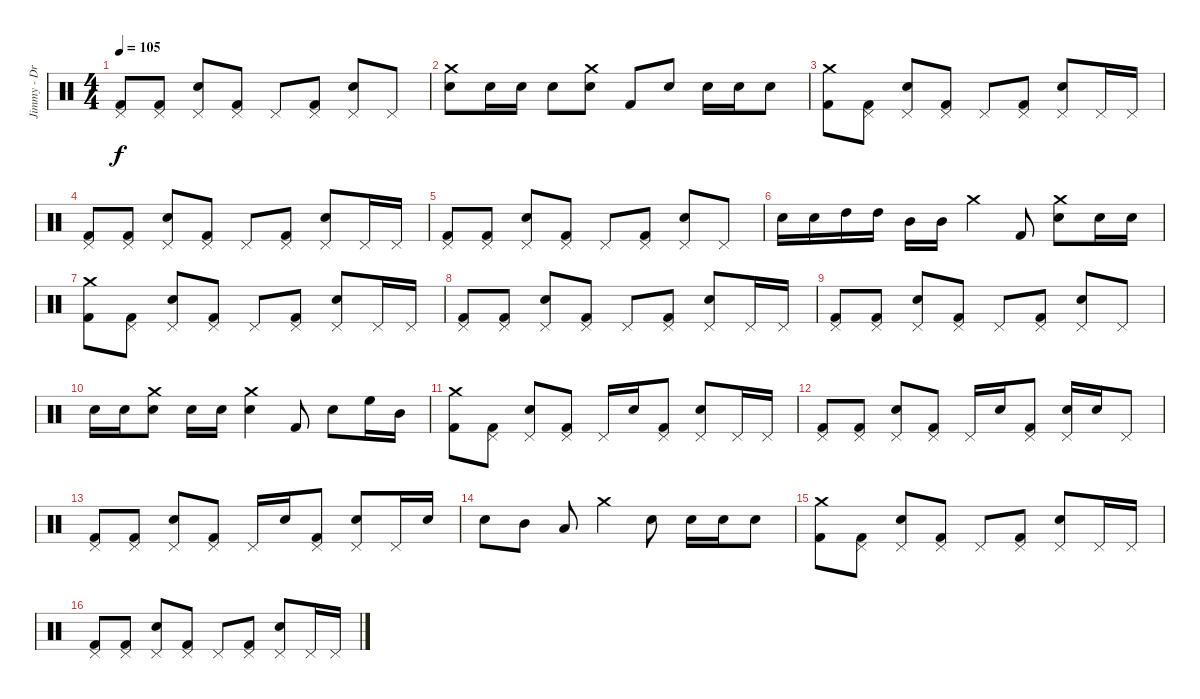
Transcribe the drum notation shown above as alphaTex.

\track ("Jimmy - Drums" "Jimmy - Dr") {instrument percussion}
\staff {score}
\articulation defaults
\ts (4 4)
\tempo 105
\clef neutral
\ks c
("Pedal Hi-Hat (hit)" "Kick (hit) 2").8{dy f} ("Pedal Hi-Hat (hit)" "Kick (hit) 2").8 ("Pedal Hi-Hat (hit)" "Electric Snare (hit)").8 ("Pedal Hi-Hat (hit)" "Kick (hit) 2").8 "Pedal Hi-Hat (hit)".8 ("Pedal Hi-Hat (hit)" "Kick (hit) 2").8 ("Pedal Hi-Hat (hit)" "Electric Snare (hit)").8 "Pedal Hi-Hat (hit)".8 |
("Crash medium (hit)" "Electric Snare (hit)").8 "Electric Snare (hit)".16 "Electric Snare (hit)".16 "Electric Snare (hit)".8 ("Crash medium (hit)" "Electric Snare (hit)").8 "Kick (hit) 2".8 "Electric Snare (hit)".8 "Electric Snare (hit)".16 "Electric Snare (hit)".16 "Electric Snare (hit)".8 |
("Crash medium (hit)" "Kick (hit) 2").8 ("Pedal Hi-Hat (hit)" "Kick (hit) 2").8 ("Pedal Hi-Hat (hit)" "Electric Snare (hit)").8 ("Pedal Hi-Hat (hit)" "Kick (hit) 2").8 "Pedal Hi-Hat (hit)".8 ("Pedal Hi-Hat (hit)" "Kick (hit) 2").8 ("Pedal Hi-Hat (hit)" "Electric Snare (hit)").8 "Pedal Hi-Hat (hit)".16 "Pedal Hi-Hat (hit)".16 |
("Pedal Hi-Hat (hit)" "Kick (hit) 2").8 ("Pedal Hi-Hat (hit)" "Kick (hit) 2").8 ("Pedal Hi-Hat (hit)" "Electric Snare (hit)").8 ("Pedal Hi-Hat (hit)" "Kick (hit) 2").8 "Pedal Hi-Hat (hit)".8 ("Pedal Hi-Hat (hit)" "Kick (hit) 2").8 ("Pedal Hi-Hat (hit)" "Electric Snare (hit)").8 "Pedal Hi-Hat (hit)".16 "Pedal Hi-Hat (hit)".16 |
("Pedal Hi-Hat (hit)" "Kick (hit) 2").8 ("Pedal Hi-Hat (hit)" "Kick (hit) 2").8 ("Pedal Hi-Hat (hit)" "Electric Snare (hit)").8 ("Pedal Hi-Hat (hit)" "Kick (hit) 2").8 "Pedal Hi-Hat (hit)".8 ("Pedal Hi-Hat (hit)" "Kick (hit) 2").8 ("Pedal Hi-Hat (hit)" "Electric Snare (hit)").8 "Pedal Hi-Hat (hit)".8 |
"Electric Snare (hit)".16 "Electric Snare (hit)".16 "High Tom (hit)".16 "High Tom (hit)".16 "Mid Tom (hit)".16 "Mid Tom (hit)".16 "Crash medium (hit)".4 "Kick (hit) 2".8 ("Crash medium (hit)" "Electric Snare (hit)").8 "Electric Snare (hit)".16 "Electric Snare (hit)".16 |
("Crash medium (hit)" "Kick (hit) 2").8 ("Pedal Hi-Hat (hit)" "Kick (hit) 2").8 ("Pedal Hi-Hat (hit)" "Electric Snare (hit)").8 ("Pedal Hi-Hat (hit)" "Kick (hit) 2").8 "Pedal Hi-Hat (hit)".8 ("Pedal Hi-Hat (hit)" "Kick (hit) 2").8 ("Pedal Hi-Hat (hit)" "Electric Snare (hit)").8 "Pedal Hi-Hat (hit)".16 "Pedal Hi-Hat (hit)".16 |
("Pedal Hi-Hat (hit)" "Kick (hit) 2").8 ("Pedal Hi-Hat (hit)" "Kick (hit) 2").8 ("Pedal Hi-Hat (hit)" "Electric Snare (hit)").8 ("Pedal Hi-Hat (hit)" "Kick (hit) 2").8 "Pedal Hi-Hat (hit)".8 ("Pedal Hi-Hat (hit)" "Kick (hit) 2").8 ("Pedal Hi-Hat (hit)" "Electric Snare (hit)").8 "Pedal Hi-Hat (hit)".16 "Pedal Hi-Hat (hit)".16 |
("Pedal Hi-Hat (hit)" "Kick (hit) 2").8 ("Pedal Hi-Hat (hit)" "Kick (hit) 2").8 ("Pedal Hi-Hat (hit)" "Electric Snare (hit)").8 ("Pedal Hi-Hat (hit)" "Kick (hit) 2").8 "Pedal Hi-Hat (hit)".8 ("Pedal Hi-Hat (hit)" "Kick (hit) 2").8 ("Pedal Hi-Hat (hit)" "Electric Snare (hit)").8 "Pedal Hi-Hat (hit)".8 |
"Electric Snare (hit)".16 "Electric Snare (hit)".16 ("Crash medium (hit)" "Electric Snare (hit)").8 "Electric Snare (hit)".16 "Electric Snare (hit)".16 ("Crash medium (hit)" "Electric Snare (hit)").4 "Kick (hit) 2".8 "Electric Snare (hit)".8 "High Floor Tom (hit)".16 "Mid Tom (hit)".16 |
("Crash medium (hit)" "Kick (hit) 2").8 ("Pedal Hi-Hat (hit)" "Kick (hit) 2").8 ("Pedal Hi-Hat (hit)" "Electric Snare (hit)").8 ("Pedal Hi-Hat (hit)" "Kick (hit) 2").8 "Pedal Hi-Hat (hit)".16 "Electric Snare (hit)".16 ("Pedal Hi-Hat (hit)" "Kick (hit) 2").8 ("Pedal Hi-Hat (hit)" "Electric Snare (hit)").8 "Pedal Hi-Hat (hit)".16 "Pedal Hi-Hat (hit)".16 |
("Pedal Hi-Hat (hit)" "Kick (hit) 2").8 ("Pedal Hi-Hat (hit)" "Kick (hit) 2").8 ("Pedal Hi-Hat (hit)" "Electric Snare (hit)").8 ("Pedal Hi-Hat (hit)" "Kick (hit) 2").8 "Pedal Hi-Hat (hit)".16 "Electric Snare (hit)".16 ("Pedal Hi-Hat (hit)" "Kick (hit) 2").8 ("Pedal Hi-Hat (hit)" "Electric Snare (hit)").16 "Electric Snare (hit)".16 "Pedal Hi-Hat (hit)".8 |
("Pedal Hi-Hat (hit)" "Kick (hit) 2").8 ("Pedal Hi-Hat (hit)" "Kick (hit) 2").8 ("Pedal Hi-Hat (hit)" "Electric Snare (hit)").8 ("Pedal Hi-Hat (hit)" "Kick (hit) 2").8 "Pedal Hi-Hat (hit)".16 "Electric Snare (hit)".16 ("Pedal Hi-Hat (hit)" "Kick (hit) 2").8 ("Pedal Hi-Hat (hit)" "Electric Snare (hit)").8 "Pedal Hi-Hat (hit)".16 "Electric Snare (hit)".16 |
"Electric Snare (hit)".8 "Mid Tom (hit)".8 "Low Tom (hit)".8 "Crash medium (hit)".4 "Electric Snare (hit)".8 "Electric Snare (hit)".16 "Electric Snare (hit)".16 "Electric Snare (hit)".8 |
("Crash medium (hit)" "Kick (hit) 2").8 ("Pedal Hi-Hat (hit)" "Kick (hit) 2").8 ("Pedal Hi-Hat (hit)" "Electric Snare (hit)").8 ("Pedal Hi-Hat (hit)" "Kick (hit) 2").8 "Pedal Hi-Hat (hit)".8 ("Pedal Hi-Hat (hit)" "Kick (hit) 2").8 ("Pedal Hi-Hat (hit)" "Electric Snare (hit)").8 "Pedal Hi-Hat (hit)".16 "Pedal Hi-Hat (hit)".16 |
("Pedal Hi-Hat (hit)" "Kick (hit) 2").8 ("Pedal Hi-Hat (hit)" "Kick (hit) 2").8 ("Pedal Hi-Hat (hit)" "Electric Snare (hit)").8 ("Pedal Hi-Hat (hit)" "Kick (hit) 2").8 "Pedal Hi-Hat (hit)".8 ("Pedal Hi-Hat (hit)" "Kick (hit) 2").8 ("Pedal Hi-Hat (hit)" "Electric Snare (hit)").8 "Pedal Hi-Hat (hit)".16 "Pedal Hi-Hat (hit)".16
